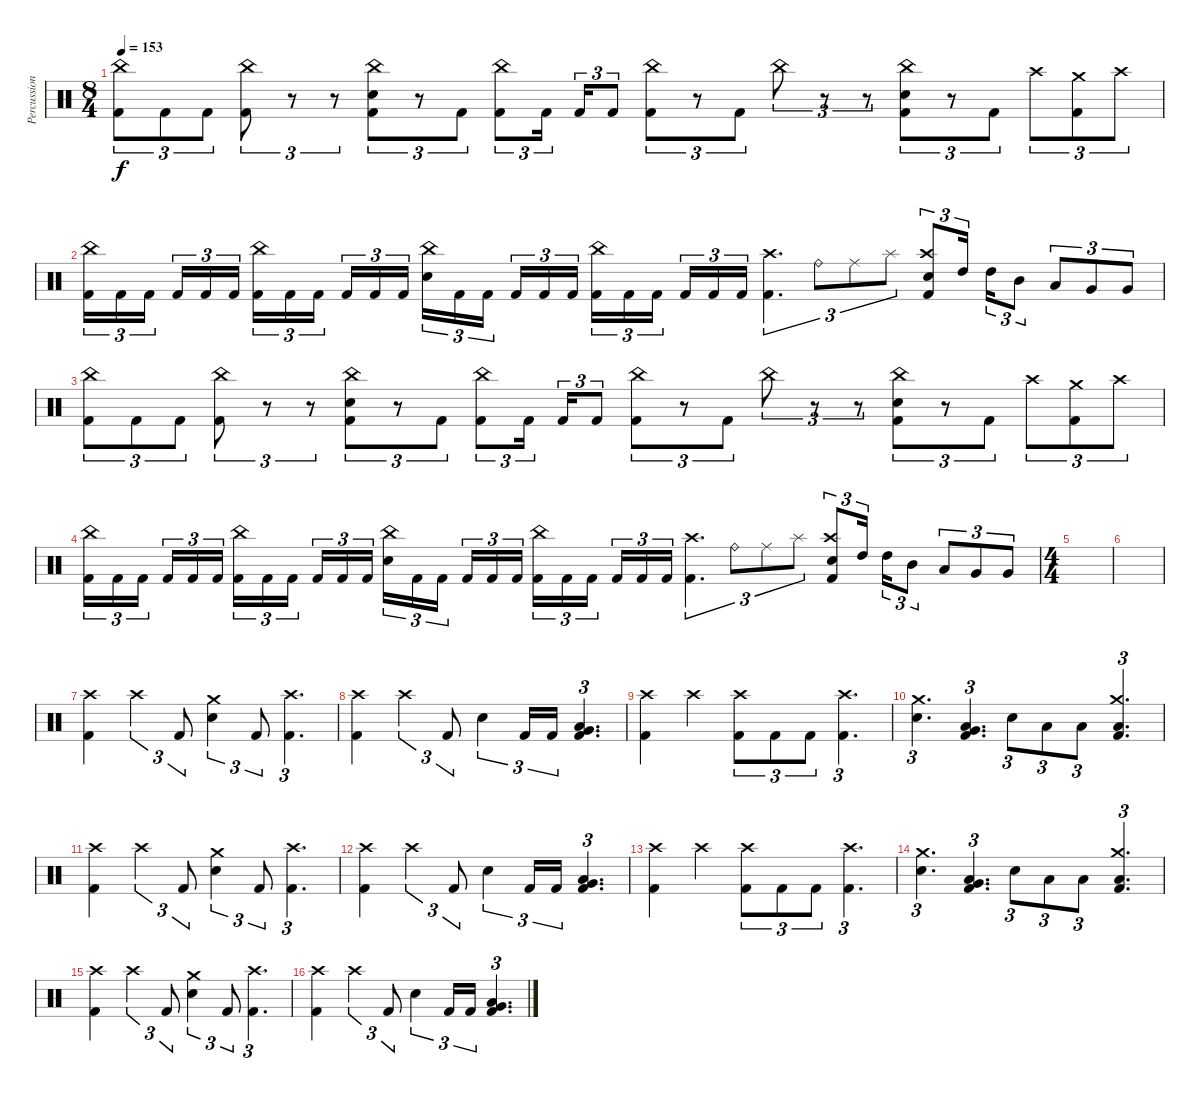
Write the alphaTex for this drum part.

\track ("Percussion" "Percussion") {instrument percussion}
\staff {score}
\articulation defaults
\ts (8 4)
\tempo 153
\clef neutral
\ks c
("China (hit)" "Kick (hit) 2").8{tu (3 2) dy f} "Kick (hit) 2".8{tu (3 2)} "Kick (hit) 2".8{tu (3 2)} ("China (hit)" "Kick (hit) 2").8{tu (3 2)} r.8{tu (3 2)} r.8{tu (3 2)} ("China (hit)" "Electric Snare (hit)" "Kick (hit) 2").8{tu (3 2)} r.8{tu (3 2)} "Kick (hit) 2".8{tu (3 2)} ("China (hit)" "Kick (hit) 2").8{tu (3 2)} "Kick (hit) 2".16{tu (3 2) beam splitsecondary} "Kick (hit) 2".16{tu (3 2)} "Kick (hit) 2".8{tu (3 2)} ("China (hit)" "Kick (hit) 2").8{tu (3 2)} r.8{tu (3 2)} "Kick (hit) 2".8{tu (3 2)} "China (hit)".8{tu (3 2)} r.8{tu (3 2)} r.8{tu (3 2)} ("China (hit)" "Electric Snare (hit)" "Kick (hit) 2").8{tu (3 2)} r.8{tu (3 2)} "Kick (hit) 2".8{tu (3 2)} "Crash high (hit)".8{tu (3 2)} ("Crash medium (hit)" "Kick (hit) 2").8{tu (3 2)} "Crash high (hit)".8{tu (3 2)} |
("China (hit)" "Kick (hit) 2").16{tu (3 2)} "Kick (hit) 2".16{tu (3 2)} "Kick (hit) 2".16{tu (3 2) beam splitsecondary} "Kick (hit) 2".16{tu (3 2)} "Kick (hit) 2".16{tu (3 2)} "Kick (hit) 2".16{tu (3 2)} ("China (hit)" "Kick (hit) 2").16{tu (3 2)} "Kick (hit) 2".16{tu (3 2)} "Kick (hit) 2".16{tu (3 2) beam splitsecondary} "Kick (hit) 2".16{tu (3 2)} "Kick (hit) 2".16{tu (3 2)} "Kick (hit) 2".16{tu (3 2)} ("China (hit)" "Snare (hit) 2").16{tu (3 2)} "Kick (hit) 2".16{tu (3 2)} "Kick (hit) 2".16{tu (3 2) beam splitsecondary} "Kick (hit) 2".16{tu (3 2)} "Kick (hit) 2".16{tu (3 2)} "Kick (hit) 2".16{tu (3 2)} ("China (hit)" "Kick (hit) 2").16{tu (3 2)} "Kick (hit) 2".16{tu (3 2)} "Kick (hit) 2".16{tu (3 2) beam splitsecondary} "Kick (hit) 2".16{tu (3 2)} "Kick (hit) 2".16{tu (3 2)} "Kick (hit) 2".16{tu (3 2)} ("Crash high (hit)" "Kick (hit) 2").4{d tu (3 2)} "Ride (bell)".8{tu (3 2)} "Ride (middle)".8{tu (3 2)} "Splash (hit)".8{tu (3 2)} ("Crash high (hit)" "Snare (hit) 2" "Kick (hit) 2").8{tu (3 2)} "High Tom (hit)".16{tu (3 2) beam splitsecondary} "High Tom (hit)".16{tu (3 2)} "Mid Tom (hit)".8{tu (3 2)} "Low Tom (hit)".8{tu (3 2)} "Very Low Tom (hit)".8{tu (3 2)} "Very Low Tom (hit)".8{tu (3 2)} |
("China (hit)" "Kick (hit) 2").8{tu (3 2)} "Kick (hit) 2".8{tu (3 2)} "Kick (hit) 2".8{tu (3 2)} ("China (hit)" "Kick (hit) 2").8{tu (3 2)} r.8{tu (3 2)} r.8{tu (3 2)} ("China (hit)" "Electric Snare (hit)" "Kick (hit) 2").8{tu (3 2)} r.8{tu (3 2)} "Kick (hit) 2".8{tu (3 2)} ("China (hit)" "Kick (hit) 2").8{tu (3 2)} "Kick (hit) 2".16{tu (3 2) beam splitsecondary} "Kick (hit) 2".16{tu (3 2)} "Kick (hit) 2".8{tu (3 2)} ("China (hit)" "Kick (hit) 2").8{tu (3 2)} r.8{tu (3 2)} "Kick (hit) 2".8{tu (3 2)} "China (hit)".8{tu (3 2)} r.8{tu (3 2)} r.8{tu (3 2)} ("China (hit)" "Electric Snare (hit)" "Kick (hit) 2").8{tu (3 2)} r.8{tu (3 2)} "Kick (hit) 2".8{tu (3 2)} "Crash high (hit)".8{tu (3 2)} ("Crash medium (hit)" "Kick (hit) 2").8{tu (3 2)} "Crash high (hit)".8{tu (3 2)} |
("China (hit)" "Kick (hit) 2").16{tu (3 2)} "Kick (hit) 2".16{tu (3 2)} "Kick (hit) 2".16{tu (3 2) beam splitsecondary} "Kick (hit) 2".16{tu (3 2)} "Kick (hit) 2".16{tu (3 2)} "Kick (hit) 2".16{tu (3 2)} ("China (hit)" "Kick (hit) 2").16{tu (3 2)} "Kick (hit) 2".16{tu (3 2)} "Kick (hit) 2".16{tu (3 2) beam splitsecondary} "Kick (hit) 2".16{tu (3 2)} "Kick (hit) 2".16{tu (3 2)} "Kick (hit) 2".16{tu (3 2)} ("China (hit)" "Snare (hit) 2").16{tu (3 2)} "Kick (hit) 2".16{tu (3 2)} "Kick (hit) 2".16{tu (3 2) beam splitsecondary} "Kick (hit) 2".16{tu (3 2)} "Kick (hit) 2".16{tu (3 2)} "Kick (hit) 2".16{tu (3 2)} ("China (hit)" "Kick (hit) 2").16{tu (3 2)} "Kick (hit) 2".16{tu (3 2)} "Kick (hit) 2".16{tu (3 2) beam splitsecondary} "Kick (hit) 2".16{tu (3 2)} "Kick (hit) 2".16{tu (3 2)} "Kick (hit) 2".16{tu (3 2)} ("Crash high (hit)" "Kick (hit) 2").4{d tu (3 2)} "Ride (bell)".8{tu (3 2)} "Ride (middle)".8{tu (3 2)} "Splash (hit)".8{tu (3 2)} ("Crash high (hit)" "Snare (hit) 2" "Kick (hit) 2").8{tu (3 2)} "High Tom (hit)".16{tu (3 2) beam splitsecondary} "High Tom (hit)".16{tu (3 2)} "Mid Tom (hit)".8{tu (3 2)} "Low Tom (hit)".8{tu (3 2)} "Very Low Tom (hit)".8{tu (3 2)} "Very Low Tom (hit)".8{tu (3 2)} |
\ts (4 4)
|
|
("Crash high (hit)" "Kick (hit) 2").4 "Crash high (hit)".4{tu (3 2)} "Kick (hit) 2".8{tu (3 2)} ("Crash medium (hit)" "Snare (hit) 2").4{tu (3 2)} "Kick (hit) 2".8{tu (3 2)} ("Crash high (hit)" "Kick (hit) 2").4{d tu (3 2)} |
("Crash high (hit)" "Kick (hit) 2").4 "Crash high (hit)".4{tu (3 2)} "Kick (hit) 2".8{tu (3 2)} "Snare (hit) 2".4{tu (3 2)} "Kick (hit) 2".16{tu (3 2)} "Kick (hit) 2".16{tu (3 2)} ("Kick (hit) 2" "Low Floor Tom (hit)" "Very Low Tom (hit)").4{d tu (3 2)} |
("Crash high (hit)" "Kick (hit) 2").4 "Crash high (hit)".4 ("Crash high (hit)" "Kick (hit) 2").8{tu (3 2)} "Kick (hit) 2".8{tu (3 2)} "Kick (hit) 2".8{tu (3 2)} ("Crash high (hit)" "Kick (hit) 2").4{d tu (3 2)} |
("Crash medium (hit)" "Snare (hit) 2").4{d tu (3 2)} ("Low Floor Tom (hit)" "Very Low Tom (hit)" "Kick (hit) 2").4{d tu (3 2)} "Snare (hit) 2".8{tu (3 2)} "Low Tom (hit)".8{tu (3 2)} "Low Tom (hit)".8{tu (3 2)} ("Crash medium (hit)" "Low Floor Tom (hit)" "Kick (hit) 2").4{d tu (3 2)} |
("Crash high (hit)" "Kick (hit) 2").4 "Crash high (hit)".4{tu (3 2)} "Kick (hit) 2".8{tu (3 2)} ("Crash medium (hit)" "Snare (hit) 2").4{tu (3 2)} "Kick (hit) 2".8{tu (3 2)} ("Crash high (hit)" "Kick (hit) 2").4{d tu (3 2)} |
("Crash high (hit)" "Kick (hit) 2").4 "Crash high (hit)".4{tu (3 2)} "Kick (hit) 2".8{tu (3 2)} "Snare (hit) 2".4{tu (3 2)} "Kick (hit) 2".16{tu (3 2)} "Kick (hit) 2".16{tu (3 2)} ("Kick (hit) 2" "Low Floor Tom (hit)" "Very Low Tom (hit)").4{d tu (3 2)} |
("Crash high (hit)" "Kick (hit) 2").4 "Crash high (hit)".4 ("Crash high (hit)" "Kick (hit) 2").8{tu (3 2)} "Kick (hit) 2".8{tu (3 2)} "Kick (hit) 2".8{tu (3 2)} ("Crash high (hit)" "Kick (hit) 2").4{d tu (3 2)} |
("Crash medium (hit)" "Snare (hit) 2").4{d tu (3 2)} ("Low Floor Tom (hit)" "Very Low Tom (hit)" "Kick (hit) 2").4{d tu (3 2)} "Snare (hit) 2".8{tu (3 2)} "Low Tom (hit)".8{tu (3 2)} "Low Tom (hit)".8{tu (3 2)} ("Crash medium (hit)" "Low Floor Tom (hit)" "Kick (hit) 2").4{d tu (3 2)} |
("Crash high (hit)" "Kick (hit) 2").4 "Crash high (hit)".4{tu (3 2)} "Kick (hit) 2".8{tu (3 2)} ("Crash medium (hit)" "Snare (hit) 2").4{tu (3 2)} "Kick (hit) 2".8{tu (3 2)} ("Crash high (hit)" "Kick (hit) 2").4{d tu (3 2)} |
("Crash high (hit)" "Kick (hit) 2").4 "Crash high (hit)".4{tu (3 2)} "Kick (hit) 2".8{tu (3 2)} "Snare (hit) 2".4{tu (3 2)} "Kick (hit) 2".16{tu (3 2)} "Kick (hit) 2".16{tu (3 2)} ("Kick (hit) 2" "Low Floor Tom (hit)" "Very Low Tom (hit)").4{d tu (3 2)}
